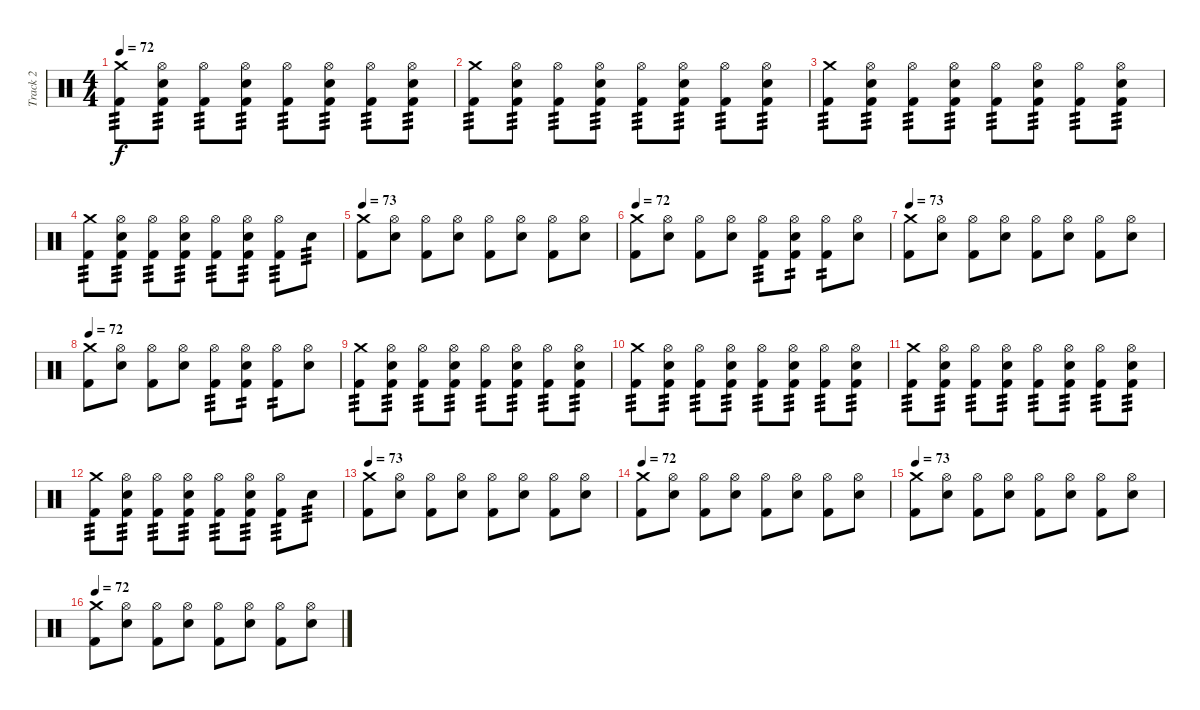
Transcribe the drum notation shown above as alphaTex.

\track ("Track 2" "Track 2") {instrument percussion}
\staff {score}
\articulation defaults
\ts (4 4)
\tempo 72
\clef neutral
\ks c
("Kick (hit) 2" "Crash medium (hit)").8{tp 3 dy f} ("Kick (hit) 2" "Snare (hit) 2" "Hi-Hat (open)").8{tp 3} ("Kick (hit) 2" "Hi-Hat (open)").8{tp 3} ("Kick (hit) 2" "Snare (hit) 2" "Hi-Hat (open)").8{tp 3} ("Kick (hit) 2" "Hi-Hat (open)").8{tp 3} ("Kick (hit) 2" "Snare (hit) 2" "Hi-Hat (open)").8{tp 3} ("Kick (hit) 2" "Hi-Hat (open)").8{tp 3} ("Kick (hit) 2" "Snare (hit) 2" "Hi-Hat (open)").8{tp 3} |
("Kick (hit) 2" "Crash medium (hit)").8{tp 3} ("Kick (hit) 2" "Snare (hit) 2" "Hi-Hat (open)").8{tp 3} ("Kick (hit) 2" "Hi-Hat (open)").8{tp 3} ("Kick (hit) 2" "Snare (hit) 2" "Hi-Hat (open)").8{tp 3} ("Kick (hit) 2" "Hi-Hat (open)").8{tp 3} ("Kick (hit) 2" "Snare (hit) 2" "Hi-Hat (open)").8{tp 3} ("Kick (hit) 2" "Hi-Hat (open)").8{tp 3} ("Kick (hit) 2" "Snare (hit) 2" "Hi-Hat (open)").8{tp 3} |
("Kick (hit) 2" "Crash medium (hit)").8{tp 3} ("Kick (hit) 2" "Snare (hit) 2" "Hi-Hat (open)").8{tp 3} ("Kick (hit) 2" "Hi-Hat (open)").8{tp 3} ("Kick (hit) 2" "Snare (hit) 2" "Hi-Hat (open)").8{tp 3} ("Kick (hit) 2" "Hi-Hat (open)").8{tp 3} ("Kick (hit) 2" "Snare (hit) 2" "Hi-Hat (open)").8{tp 3} ("Kick (hit) 2" "Hi-Hat (open)").8{tp 3} ("Kick (hit) 2" "Snare (hit) 2" "Hi-Hat (open)").8{tp 3} |
("Kick (hit) 2" "Crash medium (hit)").8{tp 3} ("Kick (hit) 2" "Snare (hit) 2" "Hi-Hat (open)").8{tp 3} ("Kick (hit) 2" "Hi-Hat (open)").8{tp 3} ("Kick (hit) 2" "Snare (hit) 2" "Hi-Hat (open)").8{tp 3} ("Kick (hit) 2" "Hi-Hat (open)").8{tp 3} ("Kick (hit) 2" "Snare (hit) 2" "Hi-Hat (open)").8{tp 3} ("Kick (hit) 2" "Hi-Hat (open)").8{tp 3} "Snare (hit) 2".8{tp 3} |
\tempo 73
("Kick (hit) 2" "Crash medium (hit)").8 ("Snare (hit) 2" "Hi-Hat (open)").8 ("Kick (hit) 2" "Hi-Hat (open)").8 ("Snare (hit) 2" "Hi-Hat (open)").8 ("Kick (hit) 2" "Hi-Hat (open)").8 ("Snare (hit) 2" "Hi-Hat (open)").8 ("Kick (hit) 2" "Hi-Hat (open)").8 ("Snare (hit) 2" "Hi-Hat (open)").8 |
\tempo 72
("Kick (hit) 2" "Crash medium (hit)").8 ("Snare (hit) 2" "Hi-Hat (open)").8 ("Kick (hit) 2" "Hi-Hat (open)").8 ("Snare (hit) 2" "Hi-Hat (open)").8 ("Kick (hit) 2" "Hi-Hat (open)").8{tp 3} ("Kick (hit) 2" "Snare (hit) 2" "Hi-Hat (open)").8{tp 2} ("Kick (hit) 2" "Hi-Hat (open)").8{tp 2} ("Snare (hit) 2" "Hi-Hat (open)").8 |
\tempo 73
("Kick (hit) 2" "Crash medium (hit)").8 ("Snare (hit) 2" "Hi-Hat (open)").8 ("Kick (hit) 2" "Hi-Hat (open)").8 ("Snare (hit) 2" "Hi-Hat (open)").8 ("Kick (hit) 2" "Hi-Hat (open)").8 ("Snare (hit) 2" "Hi-Hat (open)").8 ("Kick (hit) 2" "Hi-Hat (open)").8 ("Snare (hit) 2" "Hi-Hat (open)").8 |
\tempo 72
("Kick (hit) 2" "Crash medium (hit)").8 ("Snare (hit) 2" "Hi-Hat (open)").8 ("Kick (hit) 2" "Hi-Hat (open)").8 ("Snare (hit) 2" "Hi-Hat (open)").8 ("Kick (hit) 2" "Hi-Hat (open)").8{tp 3} ("Kick (hit) 2" "Snare (hit) 2" "Hi-Hat (open)").8{tp 2} ("Kick (hit) 2" "Hi-Hat (open)").8{tp 2} ("Snare (hit) 2" "Hi-Hat (open)").8 |
("Kick (hit) 2" "Crash medium (hit)").8{tp 3} ("Kick (hit) 2" "Snare (hit) 2" "Hi-Hat (open)").8{tp 3} ("Kick (hit) 2" "Hi-Hat (open)").8{tp 3} ("Kick (hit) 2" "Snare (hit) 2" "Hi-Hat (open)").8{tp 3} ("Kick (hit) 2" "Hi-Hat (open)").8{tp 3} ("Kick (hit) 2" "Snare (hit) 2" "Hi-Hat (open)").8{tp 3} ("Kick (hit) 2" "Hi-Hat (open)").8{tp 3} ("Kick (hit) 2" "Snare (hit) 2" "Hi-Hat (open)").8{tp 3} |
("Kick (hit) 2" "Crash medium (hit)").8{tp 3} ("Kick (hit) 2" "Snare (hit) 2" "Hi-Hat (open)").8{tp 3} ("Kick (hit) 2" "Hi-Hat (open)").8{tp 3} ("Kick (hit) 2" "Snare (hit) 2" "Hi-Hat (open)").8{tp 3} ("Kick (hit) 2" "Hi-Hat (open)").8{tp 3} ("Kick (hit) 2" "Snare (hit) 2" "Hi-Hat (open)").8{tp 3} ("Kick (hit) 2" "Hi-Hat (open)").8{tp 3} ("Kick (hit) 2" "Snare (hit) 2" "Hi-Hat (open)").8{tp 3} |
("Kick (hit) 2" "Crash medium (hit)").8{tp 3} ("Kick (hit) 2" "Snare (hit) 2" "Hi-Hat (open)").8{tp 3} ("Kick (hit) 2" "Hi-Hat (open)").8{tp 3} ("Kick (hit) 2" "Snare (hit) 2" "Hi-Hat (open)").8{tp 3} ("Kick (hit) 2" "Hi-Hat (open)").8{tp 3} ("Kick (hit) 2" "Snare (hit) 2" "Hi-Hat (open)").8{tp 3} ("Kick (hit) 2" "Hi-Hat (open)").8{tp 3} ("Kick (hit) 2" "Snare (hit) 2" "Hi-Hat (open)").8{tp 3} |
("Kick (hit) 2" "Crash medium (hit)").8{tp 3} ("Kick (hit) 2" "Snare (hit) 2" "Hi-Hat (open)").8{tp 3} ("Kick (hit) 2" "Hi-Hat (open)").8{tp 3} ("Kick (hit) 2" "Snare (hit) 2" "Hi-Hat (open)").8{tp 3} ("Kick (hit) 2" "Hi-Hat (open)").8{tp 3} ("Kick (hit) 2" "Snare (hit) 2" "Hi-Hat (open)").8{tp 3} ("Kick (hit) 2" "Hi-Hat (open)").8{tp 3} "Snare (hit) 2".8{tp 3} |
\tempo 73
("Kick (hit) 2" "Crash medium (hit)").8 ("Snare (hit) 2" "Hi-Hat (open)").8 ("Kick (hit) 2" "Hi-Hat (open)").8 ("Snare (hit) 2" "Hi-Hat (open)").8 ("Kick (hit) 2" "Hi-Hat (open)").8 ("Snare (hit) 2" "Hi-Hat (open)").8 ("Kick (hit) 2" "Hi-Hat (open)").8 ("Snare (hit) 2" "Hi-Hat (open)").8 |
\tempo 72
("Kick (hit) 2" "Crash medium (hit)").8 ("Snare (hit) 2" "Hi-Hat (open)").8 ("Kick (hit) 2" "Hi-Hat (open)").8 ("Snare (hit) 2" "Hi-Hat (open)").8 ("Kick (hit) 2" "Hi-Hat (open)").8 ("Snare (hit) 2" "Hi-Hat (open)").8 ("Kick (hit) 2" "Hi-Hat (open)").8 ("Snare (hit) 2" "Hi-Hat (open)").8 |
\tempo 73
("Kick (hit) 2" "Crash medium (hit)").8 ("Snare (hit) 2" "Hi-Hat (open)").8 ("Kick (hit) 2" "Hi-Hat (open)").8 ("Snare (hit) 2" "Hi-Hat (open)").8 ("Kick (hit) 2" "Hi-Hat (open)").8 ("Snare (hit) 2" "Hi-Hat (open)").8 ("Kick (hit) 2" "Hi-Hat (open)").8 ("Snare (hit) 2" "Hi-Hat (open)").8 |
\tempo 72
("Kick (hit) 2" "Crash medium (hit)").8 ("Snare (hit) 2" "Hi-Hat (open)").8 ("Kick (hit) 2" "Hi-Hat (open)").8 ("Snare (hit) 2" "Hi-Hat (open)").8 ("Kick (hit) 2" "Hi-Hat (open)").8 ("Snare (hit) 2" "Hi-Hat (open)").8 ("Kick (hit) 2" "Hi-Hat (open)").8 ("Snare (hit) 2" "Hi-Hat (open)").8
